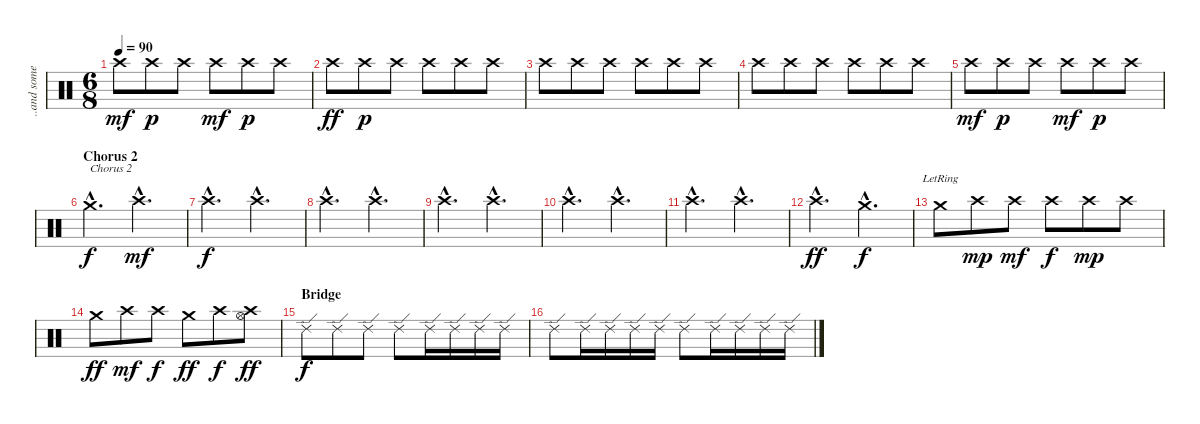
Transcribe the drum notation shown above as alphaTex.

\track ("..and some cymbals" "..and some") {instrument percussion}
\staff {score}
\articulation defaults
\ts (6 8)
\tempo 90
\clef neutral
\ks c "Crash high (hit)".8{dy mf} "Crash high (hit)".8{dy p} "Crash high (hit)".8 "Crash high (hit)".8{dy mf} "Crash high (hit)".8{dy p} "Crash high (hit)".8
|
"Crash high (hit)".8{dy ff} "Crash high (hit)".8{dy p} "Crash high (hit)".8 "Crash high (hit)".8 "Crash high (hit)".8 "Crash high (hit)".8 |
"Crash high (hit)".8 "Crash high (hit)".8 "Crash high (hit)".8 "Crash high (hit)".8 "Crash high (hit)".8 "Crash high (hit)".8 |
"Crash high (hit)".8 "Crash high (hit)".8 "Crash high (hit)".8 "Crash high (hit)".8 "Crash high (hit)".8 "Crash high (hit)".8 |
"Crash high (hit)".8{dy mf} "Crash high (hit)".8{dy p} "Crash high (hit)".8 "Crash high (hit)".8{dy mf} "Crash high (hit)".8{dy p} "Crash high (hit)".8 |
\section ("" "Chorus 2")
"Crash medium (hit)"{hac}.4{d txt "Chorus 2" dy f} "Crash high (hit)"{hac}.4{d dy mf} |
"Crash high (hit)"{hac}.4{d dy f} "Crash high (hit)"{hac}.4{d} |
"Crash high (hit)"{hac}.4{d} "Crash high (hit)"{hac}.4{d} |
"Crash high (hit)"{hac}.4{d} "Crash high (hit)"{hac}.4{d} |
"Crash high (hit)"{hac}.4{d} "Crash high (hit)"{hac}.4{d} |
"Crash high (hit)"{hac}.4{d} "Crash high (hit)"{hac}.4{d} |
"Crash high (hit)"{hac}.4{d dy ff} "Crash medium (hit)"{hac}.4{d dy f} |
"Crash medium (hit)"{lr}.8 "Crash high (hit)".8{dy mp} "Crash high (hit)".8{dy mf} "Crash high (hit)".8{dy f} "Crash high (hit)".8{dy mp} "Crash high (hit)".8 |
"Crash medium (hit)".8{dy ff} "Crash high (hit)".8{dy mf} "Crash high (hit)".8{dy f} "Crash medium (hit)".8{dy ff} "Crash high (hit)".8{dy f} ("Crash high (hit)" "Hi-Hat (open)").8{dy ff} |
\section ("" "Bridge")
"Ride (edge) 2".8{dy f} "Ride (edge) 2".8 "Ride (edge) 2".8 "Ride (edge) 2".8 "Ride (edge) 2".16 "Ride (edge) 2".16 "Ride (edge) 2".16 "Ride (edge) 2".16 |
"Ride (edge) 2".8 "Ride (edge) 2".16 "Ride (edge) 2".16 "Ride (edge) 2".16 "Ride (edge) 2".16 "Ride (edge) 2".8 "Ride (edge) 2".16 "Ride (edge) 2".16 "Ride (edge) 2".16 "Ride (edge) 2".16
